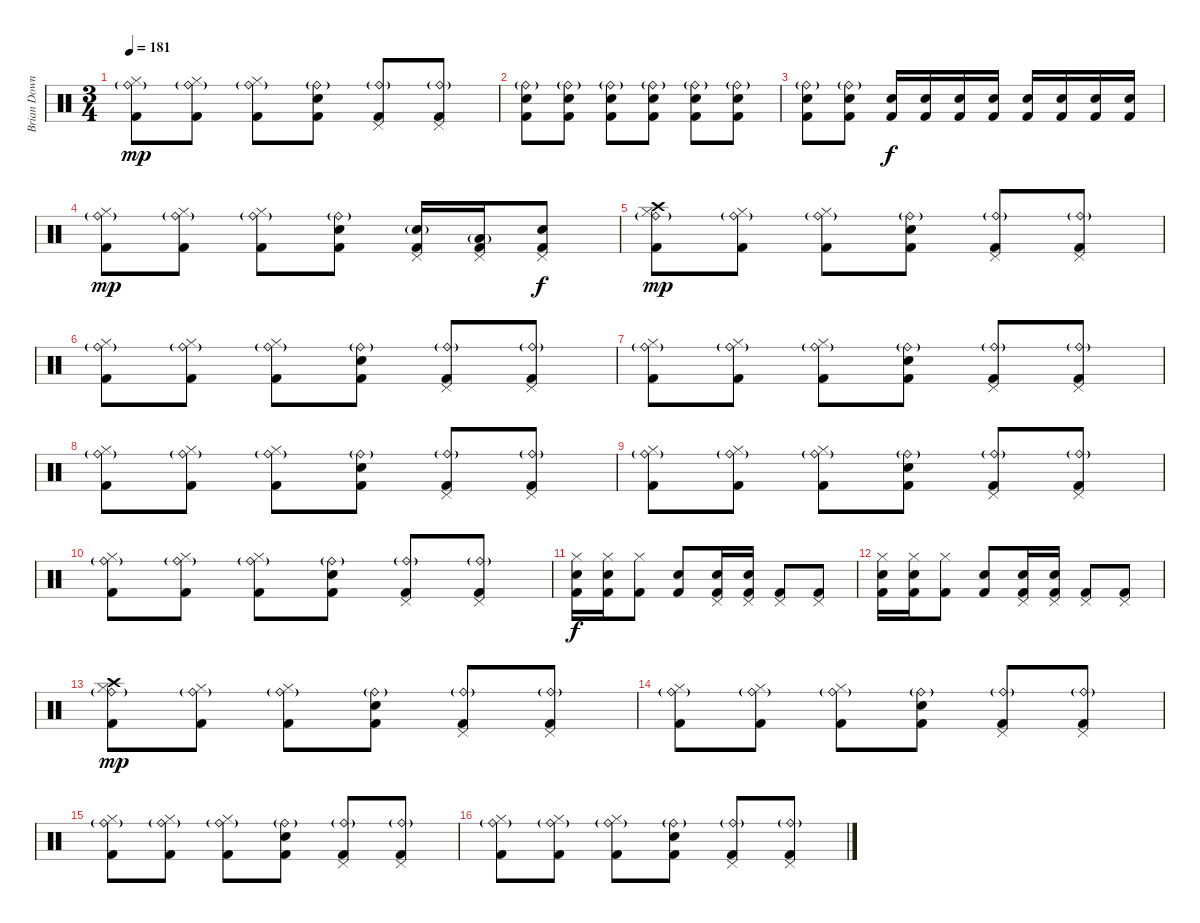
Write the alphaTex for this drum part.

\track ("Brian Downey" "Brian Down") {instrument percussion}
\staff {score}
\articulation defaults
\ts (3 4)
\tempo 181
\clef neutral
\ks c
("Ride (bell)"{g} "Hi-Hat (closed)" "Kick (hit) 2").8{dy mp} ("Ride (bell)"{g} "Hi-Hat (closed)" "Kick (hit) 2").8 ("Ride (bell)"{g} "Hi-Hat (closed)" "Kick (hit) 2").8 ("Ride (bell)"{g} "Snare (hit) 2" "Kick (hit) 2").8 ("Ride (bell)"{g} "Pedal Hi-Hat (hit)" "Kick (hit) 2").8 ("Ride (bell)"{g} "Pedal Hi-Hat (hit)" "Kick (hit) 2").8 |
("Ride (bell)"{g} "Snare (hit) 2" "Kick (hit) 2").8 ("Ride (bell)"{g} "Snare (hit) 2" "Kick (hit) 2").8 ("Ride (bell)"{g} "Snare (hit) 2" "Kick (hit) 2").8 ("Ride (bell)"{g} "Snare (hit) 2" "Kick (hit) 2").8 ("Ride (bell)"{g} "Snare (hit) 2" "Kick (hit) 2").8 ("Ride (bell)"{g} "Snare (hit) 2" "Kick (hit) 2").8 |
("Ride (bell)"{g} "Snare (hit) 2" "Kick (hit) 2").8 ("Ride (bell)"{g} "Snare (hit) 2" "Kick (hit) 2").8 ("Snare (hit) 2" "Kick (hit) 2").16{dy f} ("Snare (hit) 2" "Kick (hit) 2").16 ("Snare (hit) 2" "Kick (hit) 2").16 ("Snare (hit) 2" "Kick (hit) 2").16 ("Snare (hit) 2" "Kick (hit) 2").16 ("Snare (hit) 2" "Kick (hit) 2").16 ("Snare (hit) 2" "Kick (hit) 2").16 ("Snare (hit) 2" "Kick (hit) 2").16 |
("Ride (bell)"{g} "Hi-Hat (closed)" "Kick (hit) 2").8{dy mp} ("Ride (bell)"{g} "Hi-Hat (closed)" "Kick (hit) 2").8 ("Ride (bell)"{g} "Hi-Hat (closed)" "Kick (hit) 2").8 ("Ride (bell)"{g} "Snare (hit) 2" "Kick (hit) 2").8 ("Electric Snare (hit)"{g} "Pedal Hi-Hat (hit)" "Kick (hit) 2").16 ("Low Tom (hit)"{g} "Pedal Hi-Hat (hit)" "Kick (hit) 2").16 ("Snare (hit) 2" "Pedal Hi-Hat (hit)" "Kick (hit) 2").8{dy f} |
("Crash high (hit)" "Ride (bell)"{g} "Hi-Hat (closed)" "Kick (hit) 2").8{dy mp} ("Ride (bell)"{g} "Hi-Hat (closed)" "Kick (hit) 2").8 ("Ride (bell)"{g} "Hi-Hat (closed)" "Kick (hit) 2").8 ("Ride (bell)"{g} "Snare (hit) 2" "Kick (hit) 2").8 ("Ride (bell)"{g} "Pedal Hi-Hat (hit)" "Kick (hit) 2").8 ("Ride (bell)"{g} "Pedal Hi-Hat (hit)" "Kick (hit) 2").8 |
("Ride (bell)"{g} "Hi-Hat (closed)" "Kick (hit) 2").8 ("Ride (bell)"{g} "Hi-Hat (closed)" "Kick (hit) 2").8 ("Ride (bell)"{g} "Hi-Hat (closed)" "Kick (hit) 2").8 ("Ride (bell)"{g} "Snare (hit) 2" "Kick (hit) 2").8 ("Ride (bell)"{g} "Pedal Hi-Hat (hit)" "Kick (hit) 2").8 ("Ride (bell)"{g} "Pedal Hi-Hat (hit)" "Kick (hit) 2").8 |
("Ride (bell)"{g} "Hi-Hat (closed)" "Kick (hit) 2").8 ("Ride (bell)"{g} "Hi-Hat (closed)" "Kick (hit) 2").8 ("Ride (bell)"{g} "Hi-Hat (closed)" "Kick (hit) 2").8 ("Ride (bell)"{g} "Snare (hit) 2" "Kick (hit) 2").8 ("Ride (bell)"{g} "Pedal Hi-Hat (hit)" "Kick (hit) 2").8 ("Ride (bell)"{g} "Pedal Hi-Hat (hit)" "Kick (hit) 2").8 |
("Ride (bell)"{g} "Hi-Hat (closed)" "Kick (hit) 2").8 ("Ride (bell)"{g} "Hi-Hat (closed)" "Kick (hit) 2").8 ("Ride (bell)"{g} "Hi-Hat (closed)" "Kick (hit) 2").8 ("Ride (bell)"{g} "Snare (hit) 2" "Kick (hit) 2").8 ("Ride (bell)"{g} "Pedal Hi-Hat (hit)" "Kick (hit) 2").8 ("Ride (bell)"{g} "Pedal Hi-Hat (hit)" "Kick (hit) 2").8 |
("Ride (bell)"{g} "Hi-Hat (closed)" "Kick (hit) 2").8 ("Ride (bell)"{g} "Hi-Hat (closed)" "Kick (hit) 2").8 ("Ride (bell)"{g} "Hi-Hat (closed)" "Kick (hit) 2").8 ("Ride (bell)"{g} "Snare (hit) 2" "Kick (hit) 2").8 ("Ride (bell)"{g} "Pedal Hi-Hat (hit)" "Kick (hit) 2").8 ("Ride (bell)"{g} "Pedal Hi-Hat (hit)" "Kick (hit) 2").8 |
("Ride (bell)"{g} "Hi-Hat (closed)" "Kick (hit) 2").8 ("Ride (bell)"{g} "Hi-Hat (closed)" "Kick (hit) 2").8 ("Ride (bell)"{g} "Hi-Hat (closed)" "Kick (hit) 2").8 ("Ride (bell)"{g} "Snare (hit) 2" "Kick (hit) 2").8 ("Ride (bell)"{g} "Pedal Hi-Hat (hit)" "Kick (hit) 2").8 ("Ride (bell)"{g} "Pedal Hi-Hat (hit)" "Kick (hit) 2").8 |
("Electric Snare (hit)" "Hi-Hat (closed)" "Kick (hit) 2").16{dy f} ("Electric Snare (hit)" "Hi-Hat (closed)" "Kick (hit) 2").16 ("Hi-Hat (closed)" "Kick (hit) 2").8 ("Snare (hit) 2" "Kick (hit) 2").8 ("Electric Snare (hit)" "Pedal Hi-Hat (hit)" "Kick (hit) 2").16 ("Electric Snare (hit)" "Pedal Hi-Hat (hit)" "Kick (hit) 2").16 ("Pedal Hi-Hat (hit)" "Kick (hit) 2").8 ("Pedal Hi-Hat (hit)" "Kick (hit) 2").8 |
("Electric Snare (hit)" "Hi-Hat (closed)" "Kick (hit) 2").16 ("Electric Snare (hit)" "Hi-Hat (closed)" "Kick (hit) 2").16 ("Hi-Hat (closed)" "Kick (hit) 2").8 ("Snare (hit) 2" "Kick (hit) 2").8 ("Electric Snare (hit)" "Pedal Hi-Hat (hit)" "Kick (hit) 2").16 ("Electric Snare (hit)" "Pedal Hi-Hat (hit)" "Kick (hit) 2").16 ("Pedal Hi-Hat (hit)" "Kick (hit) 2").8 ("Pedal Hi-Hat (hit)" "Kick (hit) 2").8 |
("Crash high (hit)" "Ride (bell)"{g} "Hi-Hat (closed)" "Kick (hit) 2").8{dy mp} ("Ride (bell)"{g} "Hi-Hat (closed)" "Kick (hit) 2").8 ("Ride (bell)"{g} "Hi-Hat (closed)" "Kick (hit) 2").8 ("Ride (bell)"{g} "Snare (hit) 2" "Kick (hit) 2").8 ("Ride (bell)"{g} "Pedal Hi-Hat (hit)" "Kick (hit) 2").8 ("Ride (bell)"{g} "Pedal Hi-Hat (hit)" "Kick (hit) 2").8 |
("Ride (bell)"{g} "Hi-Hat (closed)" "Kick (hit) 2").8 ("Ride (bell)"{g} "Hi-Hat (closed)" "Kick (hit) 2").8 ("Ride (bell)"{g} "Hi-Hat (closed)" "Kick (hit) 2").8 ("Ride (bell)"{g} "Snare (hit) 2" "Kick (hit) 2").8 ("Ride (bell)"{g} "Pedal Hi-Hat (hit)" "Kick (hit) 2").8 ("Ride (bell)"{g} "Pedal Hi-Hat (hit)" "Kick (hit) 2").8 |
("Ride (bell)"{g} "Hi-Hat (closed)" "Kick (hit) 2").8 ("Ride (bell)"{g} "Hi-Hat (closed)" "Kick (hit) 2").8 ("Ride (bell)"{g} "Hi-Hat (closed)" "Kick (hit) 2").8 ("Ride (bell)"{g} "Snare (hit) 2" "Kick (hit) 2").8 ("Ride (bell)"{g} "Pedal Hi-Hat (hit)" "Kick (hit) 2").8 ("Ride (bell)"{g} "Pedal Hi-Hat (hit)" "Kick (hit) 2").8 |
("Ride (bell)"{g} "Hi-Hat (closed)" "Kick (hit) 2").8 ("Ride (bell)"{g} "Hi-Hat (closed)" "Kick (hit) 2").8 ("Ride (bell)"{g} "Hi-Hat (closed)" "Kick (hit) 2").8 ("Ride (bell)"{g} "Snare (hit) 2" "Kick (hit) 2").8 ("Ride (bell)"{g} "Pedal Hi-Hat (hit)" "Kick (hit) 2").8 ("Ride (bell)"{g} "Pedal Hi-Hat (hit)" "Kick (hit) 2").8
